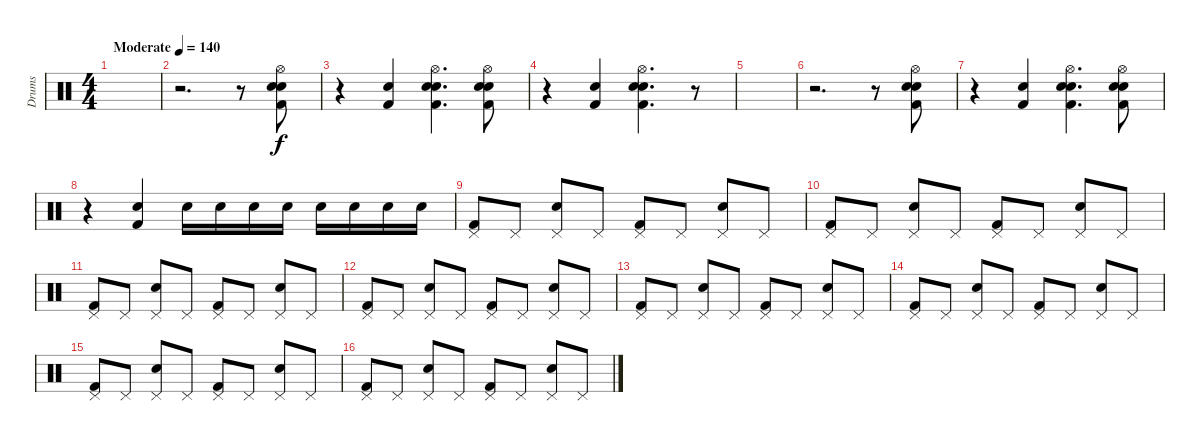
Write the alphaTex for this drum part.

\track ("Drums" "Drums") {instrument percussion}
\staff {score}
\articulation defaults
\ts (4 4)
\tempo (140 "Moderate")
\clef neutral
\ks c
|
r.2{d} r.8 ("Kick (hit) 2" "Snare (hit) 2" "Electric Snare (hit)" "Hi-Hat (open)").8 |
r.4 ("Kick (hit) 2" "Snare (hit) 2").4 ("Kick (hit) 2" "Snare (hit) 2" "Electric Snare (hit)" "Hi-Hat (open)").4{d} ("Kick (hit) 2" "Snare (hit) 2" "Electric Snare (hit)" "Hi-Hat (open)").8 |
r.4 ("Kick (hit) 2" "Snare (hit) 2").4 ("Kick (hit) 2" "Snare (hit) 2" "Electric Snare (hit)" "Hi-Hat (open)").4{d} r.8 |
|
r.2{d} r.8 ("Kick (hit) 2" "Snare (hit) 2" "Electric Snare (hit)" "Hi-Hat (open)").8 |
r.4 ("Kick (hit) 2" "Snare (hit) 2").4 ("Kick (hit) 2" "Snare (hit) 2" "Electric Snare (hit)" "Hi-Hat (open)").4{d} ("Kick (hit) 2" "Snare (hit) 2" "Electric Snare (hit)" "Hi-Hat (open)").8 |
r.4 ("Kick (hit) 2" "Snare (hit) 2").4 "Snare (hit) 2".16 "Snare (hit) 2".16 "Snare (hit) 2".16 "Snare (hit) 2".16 "Snare (hit) 2".16 "Snare (hit) 2".16 "Snare (hit) 2".16 "Snare (hit) 2".16 |
("Kick (hit) 2" "Pedal Hi-Hat (hit)").8 "Pedal Hi-Hat (hit)".8 ("Snare (hit) 2" "Pedal Hi-Hat (hit)").8 "Pedal Hi-Hat (hit)".8 ("Kick (hit) 2" "Pedal Hi-Hat (hit)").8 "Pedal Hi-Hat (hit)".8 ("Snare (hit) 2" "Pedal Hi-Hat (hit)").8 "Pedal Hi-Hat (hit)".8 |
("Kick (hit) 2" "Pedal Hi-Hat (hit)").8 "Pedal Hi-Hat (hit)".8 ("Snare (hit) 2" "Pedal Hi-Hat (hit)").8 "Pedal Hi-Hat (hit)".8 ("Kick (hit) 2" "Pedal Hi-Hat (hit)").8 "Pedal Hi-Hat (hit)".8 ("Snare (hit) 2" "Pedal Hi-Hat (hit)").8 "Pedal Hi-Hat (hit)".8 |
("Kick (hit) 2" "Pedal Hi-Hat (hit)").8 "Pedal Hi-Hat (hit)".8 ("Snare (hit) 2" "Pedal Hi-Hat (hit)").8 "Pedal Hi-Hat (hit)".8 ("Kick (hit) 2" "Pedal Hi-Hat (hit)").8 "Pedal Hi-Hat (hit)".8 ("Snare (hit) 2" "Pedal Hi-Hat (hit)").8 "Pedal Hi-Hat (hit)".8 |
("Kick (hit) 2" "Pedal Hi-Hat (hit)").8 "Pedal Hi-Hat (hit)".8 ("Snare (hit) 2" "Pedal Hi-Hat (hit)").8 "Pedal Hi-Hat (hit)".8 ("Kick (hit) 2" "Pedal Hi-Hat (hit)").8 "Pedal Hi-Hat (hit)".8 ("Snare (hit) 2" "Pedal Hi-Hat (hit)").8 "Pedal Hi-Hat (hit)".8 |
("Kick (hit) 2" "Pedal Hi-Hat (hit)").8 "Pedal Hi-Hat (hit)".8 ("Snare (hit) 2" "Pedal Hi-Hat (hit)").8 "Pedal Hi-Hat (hit)".8 ("Kick (hit) 2" "Pedal Hi-Hat (hit)").8 "Pedal Hi-Hat (hit)".8 ("Snare (hit) 2" "Pedal Hi-Hat (hit)").8 "Pedal Hi-Hat (hit)".8 |
("Kick (hit) 2" "Pedal Hi-Hat (hit)").8 "Pedal Hi-Hat (hit)".8 ("Snare (hit) 2" "Pedal Hi-Hat (hit)").8 "Pedal Hi-Hat (hit)".8 ("Kick (hit) 2" "Pedal Hi-Hat (hit)").8 "Pedal Hi-Hat (hit)".8 ("Snare (hit) 2" "Pedal Hi-Hat (hit)").8 "Pedal Hi-Hat (hit)".8 |
("Kick (hit) 2" "Pedal Hi-Hat (hit)").8 "Pedal Hi-Hat (hit)".8 ("Snare (hit) 2" "Pedal Hi-Hat (hit)").8 "Pedal Hi-Hat (hit)".8 ("Kick (hit) 2" "Pedal Hi-Hat (hit)").8 "Pedal Hi-Hat (hit)".8 ("Snare (hit) 2" "Pedal Hi-Hat (hit)").8 "Pedal Hi-Hat (hit)".8 |
("Kick (hit) 2" "Pedal Hi-Hat (hit)").8 "Pedal Hi-Hat (hit)".8 ("Snare (hit) 2" "Pedal Hi-Hat (hit)").8 "Pedal Hi-Hat (hit)".8 ("Kick (hit) 2" "Pedal Hi-Hat (hit)").8 "Pedal Hi-Hat (hit)".8 ("Snare (hit) 2" "Pedal Hi-Hat (hit)").8 "Pedal Hi-Hat (hit)".8
